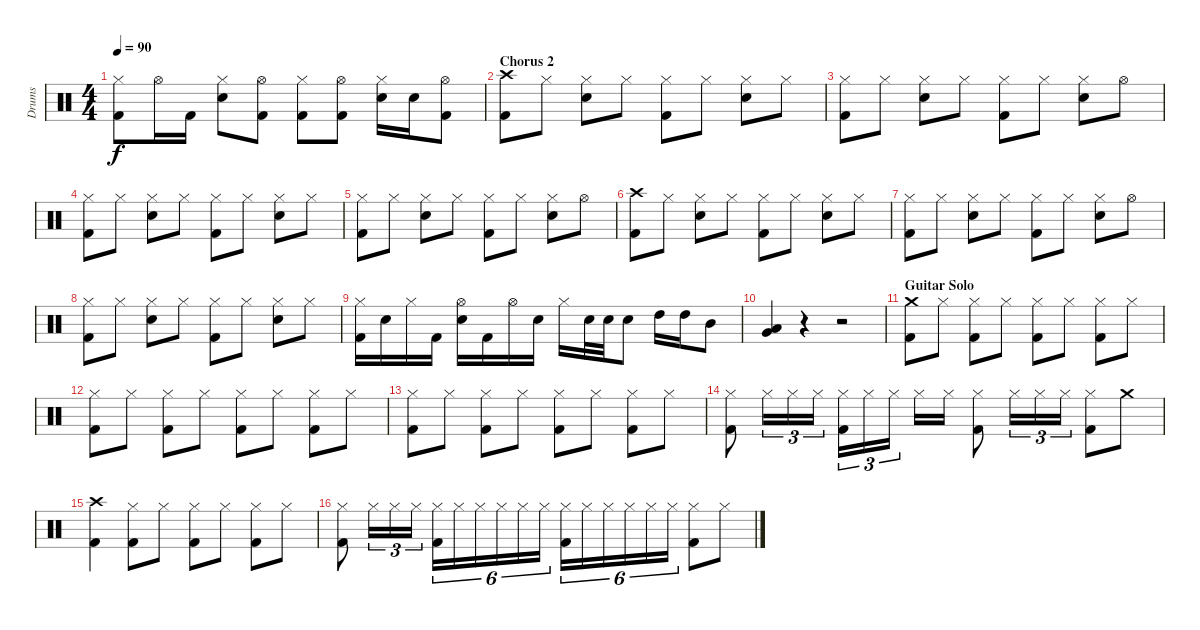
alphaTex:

\track ("Drums" "Drums") {instrument percussion}
\staff {score}
\articulation defaults
\ts (4 4)
\tempo 90
\clef neutral
\ks c
("Hi-Hat (closed)" "Kick (hit) 2").8{dy f} "Hi-Hat (open)".16 "Kick (hit) 2".16 ("Hi-Hat (closed)" "Electric Snare (hit)").8 ("Hi-Hat (open)" "Kick (hit) 2").8 ("Hi-Hat (closed)" "Kick (hit) 2").8 ("Hi-Hat (open)" "Kick (hit) 2").8 ("Hi-Hat (closed)" "Electric Snare (hit)").16 "Electric Snare (hit)".16 ("Hi-Hat (open)" "Kick (hit) 2").8 |
\section ("" "Chorus 2")
("Crash high (hit)" "Kick (hit) 2").8 "Hi-Hat (closed)".8 ("Hi-Hat (closed)" "Electric Snare (hit)").8 "Hi-Hat (closed)".8 ("Hi-Hat (closed)" "Kick (hit) 2").8 "Hi-Hat (closed)".8 ("Hi-Hat (closed)" "Electric Snare (hit)").8 "Hi-Hat (closed)".8 |
("Hi-Hat (closed)" "Kick (hit) 2").8 "Hi-Hat (closed)".8 ("Hi-Hat (closed)" "Electric Snare (hit)").8 "Hi-Hat (closed)".8 ("Hi-Hat (closed)" "Kick (hit) 2").8 "Hi-Hat (closed)".8 ("Hi-Hat (closed)" "Electric Snare (hit)").8 "Hi-Hat (open)".8 |
("Hi-Hat (closed)" "Kick (hit) 2").8 "Hi-Hat (closed)".8 ("Hi-Hat (closed)" "Electric Snare (hit)").8 "Hi-Hat (closed)".8 ("Hi-Hat (closed)" "Kick (hit) 2").8 "Hi-Hat (closed)".8 ("Hi-Hat (closed)" "Electric Snare (hit)").8 "Hi-Hat (closed)".8 |
("Hi-Hat (closed)" "Kick (hit) 2").8 "Hi-Hat (closed)".8 ("Hi-Hat (closed)" "Electric Snare (hit)").8 "Hi-Hat (closed)".8 ("Hi-Hat (closed)" "Kick (hit) 2").8 "Hi-Hat (closed)".8 ("Hi-Hat (closed)" "Electric Snare (hit)").8 "Hi-Hat (open)".8 |
("Crash high (hit)" "Kick (hit) 2").8 "Hi-Hat (closed)".8 ("Hi-Hat (closed)" "Electric Snare (hit)").8 "Hi-Hat (closed)".8 ("Hi-Hat (closed)" "Kick (hit) 2").8 "Hi-Hat (closed)".8 ("Hi-Hat (closed)" "Electric Snare (hit)").8 "Hi-Hat (closed)".8 |
("Hi-Hat (closed)" "Kick (hit) 2").8 "Hi-Hat (closed)".8 ("Hi-Hat (closed)" "Electric Snare (hit)").8 "Hi-Hat (closed)".8 ("Hi-Hat (closed)" "Kick (hit) 2").8 "Hi-Hat (closed)".8 ("Hi-Hat (closed)" "Electric Snare (hit)").8 "Hi-Hat (open)".8 |
("Hi-Hat (closed)" "Kick (hit) 2").8 "Hi-Hat (closed)".8 ("Hi-Hat (closed)" "Electric Snare (hit)").8 "Hi-Hat (closed)".8 ("Hi-Hat (closed)" "Kick (hit) 2").8 "Hi-Hat (closed)".8 ("Hi-Hat (closed)" "Electric Snare (hit)").8 "Hi-Hat (closed)".8 |
("Hi-Hat (closed)" "Kick (hit) 2").16 "Electric Snare (hit)".16 "Hi-Hat (closed)".16 "Kick (hit) 2".16 ("Hi-Hat (open)" "Electric Snare (hit)").16 "Kick (hit) 2".16 "Hi-Hat (open)".16 "Electric Snare (hit)".16 "Hi-Hat (closed)".16 "Electric Snare (hit)".32 "Electric Snare (hit)".32 "Electric Snare (hit)".8 "High Tom (hit)".16 "High Tom (hit)".16 "Mid Tom (hit)".8 |
("Low Tom (hit)" "Very Low Tom (hit)").4 r.4 r.2 |
\section ("" "Guitar Solo")
("Crash medium (hit)" "Kick (hit) 2").8 "Hi-Hat (closed)".8 ("Hi-Hat (closed)" "Kick (hit) 2").8 "Hi-Hat (closed)".8 ("Hi-Hat (closed)" "Kick (hit) 2").8 "Hi-Hat (closed)".8 ("Hi-Hat (closed)" "Kick (hit) 2").8 "Hi-Hat (closed)".8 |
("Hi-Hat (closed)" "Kick (hit) 2").8 "Hi-Hat (closed)".8 ("Hi-Hat (closed)" "Kick (hit) 2").8 "Hi-Hat (closed)".8 ("Hi-Hat (closed)" "Kick (hit) 2").8 "Hi-Hat (closed)".8 ("Hi-Hat (closed)" "Kick (hit) 2").8 "Hi-Hat (closed)".8 |
("Hi-Hat (closed)" "Kick (hit) 2").8 "Hi-Hat (closed)".8 ("Hi-Hat (closed)" "Kick (hit) 2").8 "Hi-Hat (closed)".8 ("Hi-Hat (closed)" "Kick (hit) 2").8 "Hi-Hat (closed)".8 ("Hi-Hat (closed)" "Kick (hit) 2").8 "Hi-Hat (closed)".8 |
("Hi-Hat (closed)" "Kick (hit) 2").8 "Hi-Hat (closed)".16{tu (3 2)} "Hi-Hat (closed)".16{tu (3 2)} "Hi-Hat (closed)".16{tu (3 2)} ("Hi-Hat (closed)" "Kick (hit) 2").16{tu (3 2)} "Hi-Hat (closed)".16{tu (3 2)} "Hi-Hat (closed)".16{tu (3 2)} "Hi-Hat (closed)".16 "Hi-Hat (closed)".16 ("Hi-Hat (closed)" "Kick (hit) 2").8 "Hi-Hat (closed)".16{tu (3 2)} "Hi-Hat (closed)".16{tu (3 2)} "Hi-Hat (closed)".16{tu (3 2)} ("Hi-Hat (closed)" "Kick (hit) 2").8 "Crash medium (hit)".8 |
("Crash high (hit)" "Kick (hit) 2").4 ("Hi-Hat (closed)" "Kick (hit) 2").8 "Hi-Hat (closed)".8 ("Hi-Hat (closed)" "Kick (hit) 2").8 "Hi-Hat (closed)".8 ("Hi-Hat (closed)" "Kick (hit) 2").8 "Hi-Hat (closed)".8 |
("Hi-Hat (closed)" "Kick (hit) 2").8 "Hi-Hat (closed)".16{tu (3 2)} "Hi-Hat (closed)".16{tu (3 2)} "Hi-Hat (closed)".16{tu (3 2)} ("Hi-Hat (closed)" "Kick (hit) 2").16{tu (6 4)} "Hi-Hat (closed)".16{tu (6 4)} "Hi-Hat (closed)".16{tu (6 4)} "Hi-Hat (closed)".16{tu (6 4)} "Hi-Hat (closed)".16{tu (6 4)} "Hi-Hat (closed)".16{tu (6 4)} ("Hi-Hat (closed)" "Kick (hit) 2").16{tu (6 4)} "Hi-Hat (closed)".16{tu (6 4)} "Hi-Hat (closed)".16{tu (6 4)} "Hi-Hat (closed)".16{tu (6 4)} "Hi-Hat (closed)".16{tu (6 4)} "Hi-Hat (closed)".16{tu (6 4)} ("Hi-Hat (closed)" "Kick (hit) 2").8 "Hi-Hat (closed)".8
